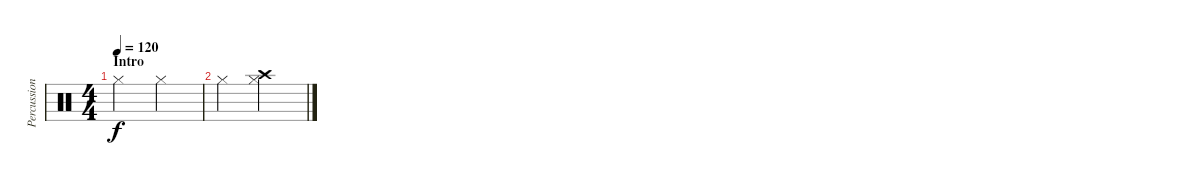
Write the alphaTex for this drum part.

\track ("Percussion" "Percussion") {instrument percussion}
\staff {score}
\articulation defaults
\ts (4 4)
\section ("" "Intro")
\tempo 120
\clef neutral
\ks c "Hi-Hat (closed)".2{dy f} "Hi-Hat (closed)".2
|
"Hi-Hat (closed)".2 ("Hi-Hat (closed)" "Crash high (hit)").2
